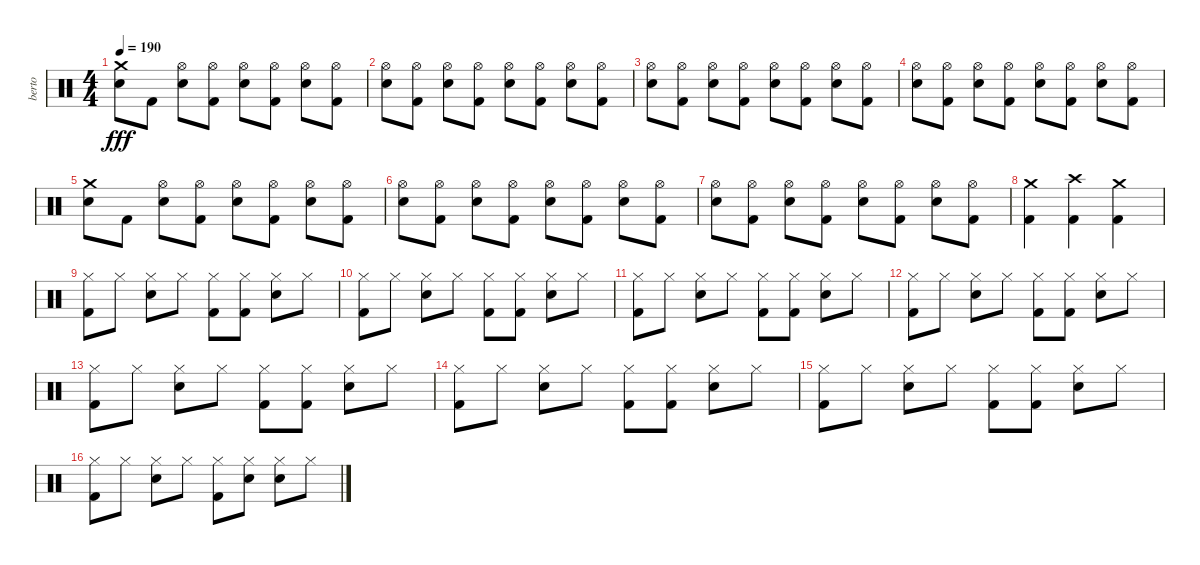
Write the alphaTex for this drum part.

\track ("berto" "berto") {instrument percussion}
\staff {score}
\articulation defaults
\ts (4 4)
\tempo 190
\clef neutral
\ks c
("Crash medium (hit)" "Snare (hit) 2").8{dy fff} "Kick (hit) 2".8 ("Hi-Hat (open)" "Snare (hit) 2").8 ("Hi-Hat (open)" "Kick (hit) 2").8 ("Hi-Hat (open)" "Snare (hit) 2").8 ("Hi-Hat (open)" "Kick (hit) 2").8 ("Hi-Hat (open)" "Snare (hit) 2").8 ("Hi-Hat (open)" "Kick (hit) 2").8 |
("Hi-Hat (open)" "Snare (hit) 2").8 ("Hi-Hat (open)" "Kick (hit) 2").8 ("Hi-Hat (open)" "Snare (hit) 2").8 ("Hi-Hat (open)" "Kick (hit) 2").8 ("Hi-Hat (open)" "Snare (hit) 2").8 ("Hi-Hat (open)" "Kick (hit) 2").8 ("Hi-Hat (open)" "Snare (hit) 2").8 ("Hi-Hat (open)" "Kick (hit) 2").8 |
("Hi-Hat (open)" "Snare (hit) 2").8 ("Hi-Hat (open)" "Kick (hit) 2").8 ("Hi-Hat (open)" "Snare (hit) 2").8 ("Hi-Hat (open)" "Kick (hit) 2").8 ("Hi-Hat (open)" "Snare (hit) 2").8 ("Hi-Hat (open)" "Kick (hit) 2").8 ("Hi-Hat (open)" "Snare (hit) 2").8 ("Hi-Hat (open)" "Kick (hit) 2").8 |
("Hi-Hat (open)" "Snare (hit) 2").8 ("Hi-Hat (open)" "Kick (hit) 2").8 ("Hi-Hat (open)" "Snare (hit) 2").8 ("Hi-Hat (open)" "Kick (hit) 2").8 ("Hi-Hat (open)" "Snare (hit) 2").8 ("Hi-Hat (open)" "Kick (hit) 2").8 ("Hi-Hat (open)" "Snare (hit) 2").8 ("Hi-Hat (open)" "Kick (hit) 2").8 |
("Crash medium (hit)" "Snare (hit) 2").8 "Kick (hit) 2".8 ("Hi-Hat (open)" "Snare (hit) 2").8 ("Hi-Hat (open)" "Kick (hit) 2").8 ("Hi-Hat (open)" "Snare (hit) 2").8 ("Hi-Hat (open)" "Kick (hit) 2").8 ("Hi-Hat (open)" "Snare (hit) 2").8 ("Hi-Hat (open)" "Kick (hit) 2").8 |
("Hi-Hat (open)" "Snare (hit) 2").8 ("Hi-Hat (open)" "Kick (hit) 2").8 ("Hi-Hat (open)" "Snare (hit) 2").8 ("Hi-Hat (open)" "Kick (hit) 2").8 ("Hi-Hat (open)" "Snare (hit) 2").8 ("Hi-Hat (open)" "Kick (hit) 2").8 ("Hi-Hat (open)" "Snare (hit) 2").8 ("Hi-Hat (open)" "Kick (hit) 2").8 |
("Hi-Hat (open)" "Snare (hit) 2").8 ("Hi-Hat (open)" "Kick (hit) 2").8 ("Hi-Hat (open)" "Snare (hit) 2").8 ("Hi-Hat (open)" "Kick (hit) 2").8 ("Hi-Hat (open)" "Snare (hit) 2").8 ("Hi-Hat (open)" "Kick (hit) 2").8 ("Hi-Hat (open)" "Snare (hit) 2").8 ("Hi-Hat (open)" "Kick (hit) 2").8 |
("Crash medium (hit)" "Kick (hit) 2").4 ("Crash high (hit)" "Kick (hit) 2").4 ("Crash medium (hit)" "Kick (hit) 2").4 |
("Hi-Hat (closed)" "Kick (hit) 2").8 "Hi-Hat (closed)".8 ("Hi-Hat (closed)" "Snare (hit) 2").8 "Hi-Hat (closed)".8 ("Hi-Hat (closed)" "Kick (hit) 2").8 ("Hi-Hat (closed)" "Kick (hit) 2").8 ("Hi-Hat (closed)" "Snare (hit) 2").8 "Hi-Hat (closed)".8 |
("Hi-Hat (closed)" "Kick (hit) 2").8 "Hi-Hat (closed)".8 ("Hi-Hat (closed)" "Snare (hit) 2").8 "Hi-Hat (closed)".8 ("Hi-Hat (closed)" "Kick (hit) 2").8 ("Hi-Hat (closed)" "Kick (hit) 2").8 ("Hi-Hat (closed)" "Snare (hit) 2").8 "Hi-Hat (closed)".8 |
("Hi-Hat (closed)" "Kick (hit) 2").8 "Hi-Hat (closed)".8 ("Hi-Hat (closed)" "Snare (hit) 2").8 "Hi-Hat (closed)".8 ("Hi-Hat (closed)" "Kick (hit) 2").8 ("Hi-Hat (closed)" "Kick (hit) 2").8 ("Hi-Hat (closed)" "Snare (hit) 2").8 "Hi-Hat (closed)".8 |
("Hi-Hat (closed)" "Kick (hit) 2").8 "Hi-Hat (closed)".8 ("Hi-Hat (closed)" "Snare (hit) 2").8 "Hi-Hat (closed)".8 ("Hi-Hat (closed)" "Kick (hit) 2").8 ("Hi-Hat (closed)" "Kick (hit) 2").8 ("Hi-Hat (closed)" "Snare (hit) 2").8 "Hi-Hat (closed)".8 |
("Hi-Hat (closed)" "Kick (hit) 2").8 "Hi-Hat (closed)".8 ("Hi-Hat (closed)" "Snare (hit) 2").8 "Hi-Hat (closed)".8 ("Hi-Hat (closed)" "Kick (hit) 2").8 ("Hi-Hat (closed)" "Kick (hit) 2").8 ("Hi-Hat (closed)" "Snare (hit) 2").8 "Hi-Hat (closed)".8 |
("Hi-Hat (closed)" "Kick (hit) 2").8 "Hi-Hat (closed)".8 ("Hi-Hat (closed)" "Snare (hit) 2").8 "Hi-Hat (closed)".8 ("Hi-Hat (closed)" "Kick (hit) 2").8 ("Hi-Hat (closed)" "Kick (hit) 2").8 ("Hi-Hat (closed)" "Snare (hit) 2").8 "Hi-Hat (closed)".8 |
("Hi-Hat (closed)" "Kick (hit) 2").8 "Hi-Hat (closed)".8 ("Hi-Hat (closed)" "Snare (hit) 2").8 "Hi-Hat (closed)".8 ("Hi-Hat (closed)" "Kick (hit) 2").8 ("Hi-Hat (closed)" "Kick (hit) 2").8 ("Hi-Hat (closed)" "Snare (hit) 2").8 "Hi-Hat (closed)".8 |
("Hi-Hat (closed)" "Kick (hit) 2").8 "Hi-Hat (closed)".8 ("Hi-Hat (closed)" "Snare (hit) 2").8 "Hi-Hat (closed)".8 ("Hi-Hat (closed)" "Kick (hit) 2").8 ("Hi-Hat (closed)" "Snare (hit) 2").8 ("Hi-Hat (closed)" "Snare (hit) 2").8 "Hi-Hat (closed)".8
